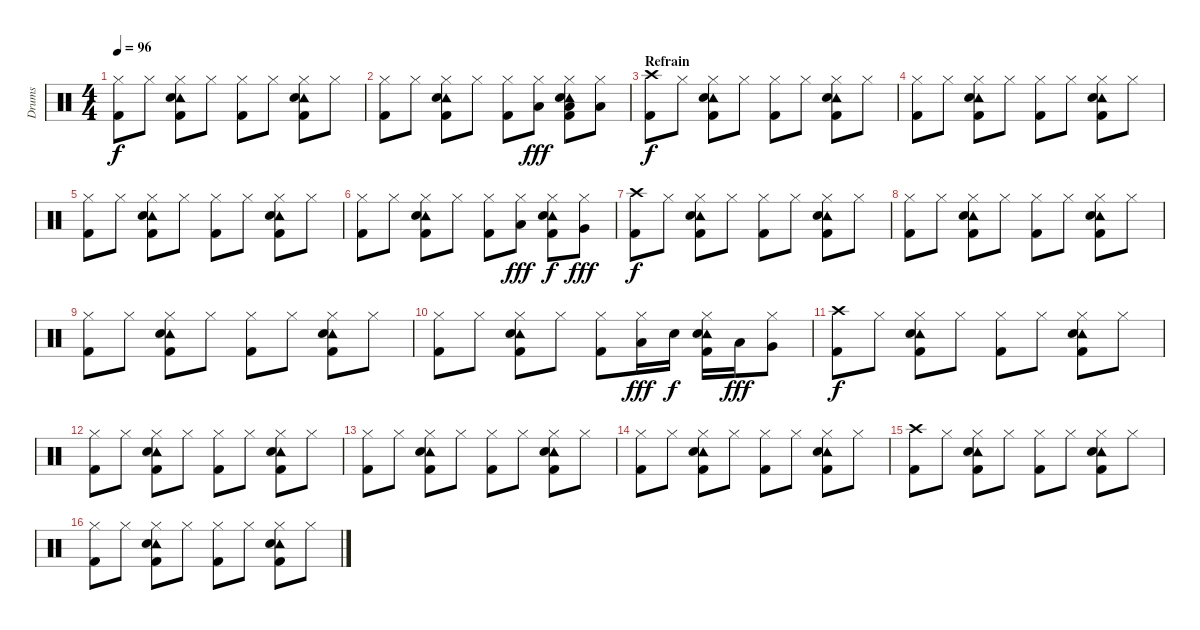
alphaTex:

\track ("Drums" "Drums") {instrument percussion}
\staff {score}
\articulation defaults
\ts (4 4)
\tempo 96
\clef neutral
\ks c
("Hi-Hat (closed)" "Kick (hit) 2").8{dy f} "Hi-Hat (closed)".8 ("Hi-Hat (closed)" "Tambourine (hit)" "Snare (hit) 2" "Kick (hit) 2").8 "Hi-Hat (closed)".8 ("Hi-Hat (closed)" "Kick (hit) 2").8 "Hi-Hat (closed)".8 ("Hi-Hat (closed)" "Tambourine (hit)" "Snare (hit) 2" "Kick (hit) 2").8 "Hi-Hat (closed)".8 |
("Hi-Hat (closed)" "Kick (hit) 2").8 "Hi-Hat (closed)".8 ("Hi-Hat (closed)" "Tambourine (hit)" "Snare (hit) 2" "Kick (hit) 2").8 "Hi-Hat (closed)".8 ("Hi-Hat (closed)" "Kick (hit) 2").8 ("Hi-Hat (closed)" "Low Tom (hit)").8{dy fff} ("Hi-Hat (closed)" "Tambourine (hit)" "Low Tom (hit)" "Snare (hit) 2" "Kick (hit) 2").8 ("Hi-Hat (closed)" "Low Floor Tom (hit)").8 |
\section ("" "Refrain")
("Crash high (hit)" "Kick (hit) 2").8{dy f} "Hi-Hat (closed)".8 ("Hi-Hat (closed)" "Tambourine (hit)" "Snare (hit) 2" "Kick (hit) 2").8 "Hi-Hat (closed)".8 ("Hi-Hat (closed)" "Kick (hit) 2").8 "Hi-Hat (closed)".8 ("Hi-Hat (closed)" "Tambourine (hit)" "Snare (hit) 2" "Kick (hit) 2").8 "Hi-Hat (closed)".8 |
("Hi-Hat (closed)" "Kick (hit) 2").8 "Hi-Hat (closed)".8 ("Hi-Hat (closed)" "Tambourine (hit)" "Snare (hit) 2" "Kick (hit) 2").8 "Hi-Hat (closed)".8 ("Hi-Hat (closed)" "Kick (hit) 2").8 "Hi-Hat (closed)".8 ("Hi-Hat (closed)" "Tambourine (hit)" "Snare (hit) 2" "Kick (hit) 2").8 "Hi-Hat (closed)".8 |
("Hi-Hat (closed)" "Kick (hit) 2").8 "Hi-Hat (closed)".8 ("Hi-Hat (closed)" "Tambourine (hit)" "Snare (hit) 2" "Kick (hit) 2").8 "Hi-Hat (closed)".8 ("Hi-Hat (closed)" "Kick (hit) 2").8 "Hi-Hat (closed)".8 ("Hi-Hat (closed)" "Tambourine (hit)" "Snare (hit) 2" "Kick (hit) 2").8 "Hi-Hat (closed)".8 |
("Hi-Hat (closed)" "Kick (hit) 2").8 "Hi-Hat (closed)".8 ("Hi-Hat (closed)" "Tambourine (hit)" "Snare (hit) 2" "Kick (hit) 2").8 "Hi-Hat (closed)".8 ("Hi-Hat (closed)" "Kick (hit) 2").8 ("Hi-Hat (closed)" "Low Tom (hit)").8{dy fff} ("Hi-Hat (closed)" "Tambourine (hit)" "Snare (hit) 2" "Kick (hit) 2").8{dy f} ("Hi-Hat (closed)" "Very Low Tom (hit)").8{dy fff} |
("Crash high (hit)" "Kick (hit) 2").8{dy f} "Hi-Hat (closed)".8 ("Hi-Hat (closed)" "Tambourine (hit)" "Snare (hit) 2" "Kick (hit) 2").8 "Hi-Hat (closed)".8 ("Hi-Hat (closed)" "Kick (hit) 2").8 "Hi-Hat (closed)".8 ("Hi-Hat (closed)" "Tambourine (hit)" "Snare (hit) 2" "Kick (hit) 2").8 "Hi-Hat (closed)".8 |
("Hi-Hat (closed)" "Kick (hit) 2").8 "Hi-Hat (closed)".8 ("Hi-Hat (closed)" "Tambourine (hit)" "Snare (hit) 2" "Kick (hit) 2").8 "Hi-Hat (closed)".8 ("Hi-Hat (closed)" "Kick (hit) 2").8 "Hi-Hat (closed)".8 ("Hi-Hat (closed)" "Tambourine (hit)" "Snare (hit) 2" "Kick (hit) 2").8 "Hi-Hat (closed)".8 |
("Hi-Hat (closed)" "Kick (hit) 2").8 "Hi-Hat (closed)".8 ("Hi-Hat (closed)" "Tambourine (hit)" "Snare (hit) 2" "Kick (hit) 2").8 "Hi-Hat (closed)".8 ("Hi-Hat (closed)" "Kick (hit) 2").8 "Hi-Hat (closed)".8 ("Hi-Hat (closed)" "Tambourine (hit)" "Snare (hit) 2" "Kick (hit) 2").8 "Hi-Hat (closed)".8 |
("Hi-Hat (closed)" "Kick (hit) 2").8 "Hi-Hat (closed)".8 ("Hi-Hat (closed)" "Tambourine (hit)" "Snare (hit) 2" "Kick (hit) 2").8 "Hi-Hat (closed)".8 ("Hi-Hat (closed)" "Kick (hit) 2").8 ("Hi-Hat (closed)" "Low Tom (hit)").16{dy fff} "Snare (hit) 2".16{dy f} ("Hi-Hat (closed)" "Tambourine (hit)" "Snare (hit) 2" "Kick (hit) 2").16 "Low Tom (hit)".16{dy fff} ("Hi-Hat (closed)" "Very Low Tom (hit)").8 |
("Crash high (hit)" "Kick (hit) 2").8{dy f} "Hi-Hat (closed)".8 ("Hi-Hat (closed)" "Tambourine (hit)" "Snare (hit) 2" "Kick (hit) 2").8 "Hi-Hat (closed)".8 ("Hi-Hat (closed)" "Kick (hit) 2").8 "Hi-Hat (closed)".8 ("Hi-Hat (closed)" "Tambourine (hit)" "Snare (hit) 2" "Kick (hit) 2").8 "Hi-Hat (closed)".8 |
("Hi-Hat (closed)" "Kick (hit) 2").8 "Hi-Hat (closed)".8 ("Hi-Hat (closed)" "Tambourine (hit)" "Snare (hit) 2" "Kick (hit) 2").8 "Hi-Hat (closed)".8 ("Hi-Hat (closed)" "Kick (hit) 2").8 "Hi-Hat (closed)".8 ("Hi-Hat (closed)" "Tambourine (hit)" "Snare (hit) 2" "Kick (hit) 2").8 "Hi-Hat (closed)".8 |
("Hi-Hat (closed)" "Kick (hit) 2").8 "Hi-Hat (closed)".8 ("Hi-Hat (closed)" "Tambourine (hit)" "Snare (hit) 2" "Kick (hit) 2").8 "Hi-Hat (closed)".8 ("Hi-Hat (closed)" "Kick (hit) 2").8 "Hi-Hat (closed)".8 ("Hi-Hat (closed)" "Tambourine (hit)" "Snare (hit) 2" "Kick (hit) 2").8 "Hi-Hat (closed)".8 |
("Hi-Hat (closed)" "Kick (hit) 2").8 "Hi-Hat (closed)".8 ("Hi-Hat (closed)" "Tambourine (hit)" "Snare (hit) 2" "Kick (hit) 2").8 "Hi-Hat (closed)".8 ("Hi-Hat (closed)" "Kick (hit) 2").8 "Hi-Hat (closed)".8 ("Hi-Hat (closed)" "Tambourine (hit)" "Snare (hit) 2" "Kick (hit) 2").8 "Hi-Hat (closed)".8 |
("Crash high (hit)" "Kick (hit) 2").8 "Hi-Hat (closed)".8 ("Hi-Hat (closed)" "Tambourine (hit)" "Snare (hit) 2" "Kick (hit) 2").8 "Hi-Hat (closed)".8 ("Hi-Hat (closed)" "Kick (hit) 2").8 "Hi-Hat (closed)".8 ("Hi-Hat (closed)" "Tambourine (hit)" "Snare (hit) 2" "Kick (hit) 2").8 "Hi-Hat (closed)".8 |
("Hi-Hat (closed)" "Kick (hit) 2").8 "Hi-Hat (closed)".8 ("Hi-Hat (closed)" "Tambourine (hit)" "Snare (hit) 2" "Kick (hit) 2").8 "Hi-Hat (closed)".8 ("Hi-Hat (closed)" "Kick (hit) 2").8 "Hi-Hat (closed)".8 ("Hi-Hat (closed)" "Tambourine (hit)" "Snare (hit) 2" "Kick (hit) 2").8 "Hi-Hat (closed)".8
